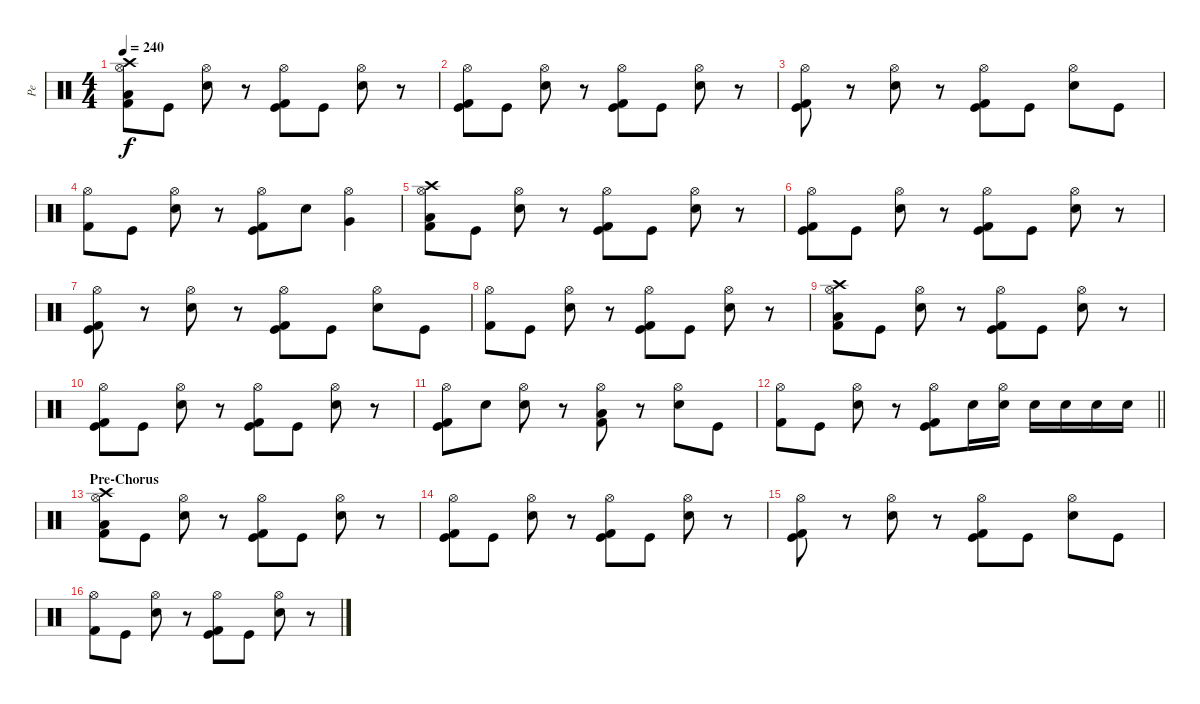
\track ("Pe" "Pe") {instrument percussion}
\staff {score}
\articulation defaults
\ts (4 4)
\tempo 240
\clef neutral
\ks c
("Low Tom (hit)" "Hi-Hat (open)" "Kick (hit) 2" "Crash high (hit)").8{dy f} "Kick (hit)".8 ("Electric Snare (hit)" "Hi-Hat (open)").8 r.8 ("Kick (hit)" "Hi-Hat (open)" "Kick (hit) 2").8 "Kick (hit)".8 ("Electric Snare (hit)" "Hi-Hat (open)").8 r.8 |
("Kick (hit)" "Hi-Hat (open)" "Kick (hit) 2").8 "Kick (hit)".8 ("Electric Snare (hit)" "Hi-Hat (open)").8 r.8 ("Kick (hit)" "Hi-Hat (open)" "Kick (hit) 2").8 "Kick (hit)".8 ("Electric Snare (hit)" "Hi-Hat (open)").8 r.8 |
("Kick (hit)" "Hi-Hat (open)" "Kick (hit) 2").8 r.8 ("Electric Snare (hit)" "Hi-Hat (open)").8 r.8 ("Kick (hit)" "Hi-Hat (open)" "Kick (hit) 2").8 "Kick (hit)".8 ("Electric Snare (hit)" "Hi-Hat (open)").8 "Kick (hit)".8 |
("Hi-Hat (open)" "Kick (hit) 2").8 "Kick (hit)".8 ("Electric Snare (hit)" "Hi-Hat (open)").8 r.8 ("Kick (hit)" "Hi-Hat (open)" "Kick (hit) 2").8 "Electric Snare (hit)".8 ("Very Low Tom (hit)" "Hi-Hat (open)").4 |
("Low Tom (hit)" "Hi-Hat (open)" "Kick (hit) 2" "Crash high (hit)").8 "Kick (hit)".8 ("Electric Snare (hit)" "Hi-Hat (open)").8 r.8 ("Kick (hit)" "Hi-Hat (open)" "Kick (hit) 2").8 "Kick (hit)".8 ("Electric Snare (hit)" "Hi-Hat (open)").8 r.8 |
("Kick (hit)" "Hi-Hat (open)" "Kick (hit) 2").8 "Kick (hit)".8 ("Electric Snare (hit)" "Hi-Hat (open)").8 r.8 ("Kick (hit)" "Hi-Hat (open)" "Kick (hit) 2").8 "Kick (hit)".8 ("Electric Snare (hit)" "Hi-Hat (open)").8 r.8 |
("Kick (hit)" "Hi-Hat (open)" "Kick (hit) 2").8 r.8 ("Electric Snare (hit)" "Hi-Hat (open)").8 r.8 ("Kick (hit)" "Hi-Hat (open)" "Kick (hit) 2").8 "Kick (hit)".8 ("Electric Snare (hit)" "Hi-Hat (open)").8 "Kick (hit)".8 |
("Hi-Hat (open)" "Kick (hit) 2").8 "Kick (hit)".8 ("Electric Snare (hit)" "Hi-Hat (open)").8 r.8 ("Kick (hit)" "Hi-Hat (open)" "Kick (hit) 2").8 "Kick (hit)".8 ("Electric Snare (hit)" "Hi-Hat (open)").8 r.8 |
("Low Tom (hit)" "Hi-Hat (open)" "Kick (hit) 2" "Crash high (hit)").8 "Kick (hit)".8 ("Electric Snare (hit)" "Hi-Hat (open)").8 r.8 ("Kick (hit)" "Hi-Hat (open)" "Kick (hit) 2").8 "Kick (hit)".8 ("Electric Snare (hit)" "Hi-Hat (open)").8 r.8 |
("Kick (hit)" "Hi-Hat (open)" "Kick (hit) 2").8 "Kick (hit)".8 ("Electric Snare (hit)" "Hi-Hat (open)").8 r.8 ("Kick (hit)" "Hi-Hat (open)" "Kick (hit) 2").8 "Kick (hit)".8 ("Electric Snare (hit)" "Hi-Hat (open)").8 r.8 |
("Kick (hit)" "Hi-Hat (open)" "Kick (hit) 2").8 "Electric Snare (hit)".8 ("Electric Snare (hit)" "Hi-Hat (open)").8 r.8 ("Low Floor Tom (hit)" "Hi-Hat (open)" "Kick (hit) 2").8 r.8 ("Electric Snare (hit)" "Hi-Hat (open)").8 "Kick (hit)".8 |
\barLineRight lightlight
("Hi-Hat (open)" "Kick (hit) 2").8 "Kick (hit)".8 ("Electric Snare (hit)" "Hi-Hat (open)").8 r.8 ("Kick (hit)" "Hi-Hat (open)" "Kick (hit) 2").8 "Electric Snare (hit)".16 ("Electric Snare (hit)" "Hi-Hat (open)").16 "Electric Snare (hit)".16 "Electric Snare (hit)".16 "Electric Snare (hit)".16 "Electric Snare (hit)".16 |
\section ("" "Pre-Chorus")
("Low Tom (hit)" "Hi-Hat (open)" "Kick (hit) 2" "Crash high (hit)").8 "Kick (hit)".8 ("Electric Snare (hit)" "Hi-Hat (open)").8 r.8 ("Kick (hit)" "Hi-Hat (open)" "Kick (hit) 2").8 "Kick (hit)".8 ("Electric Snare (hit)" "Hi-Hat (open)").8 r.8 |
("Kick (hit)" "Hi-Hat (open)" "Kick (hit) 2").8 "Kick (hit)".8 ("Electric Snare (hit)" "Hi-Hat (open)").8 r.8 ("Kick (hit)" "Hi-Hat (open)" "Kick (hit) 2").8 "Kick (hit)".8 ("Electric Snare (hit)" "Hi-Hat (open)").8 r.8 |
("Kick (hit)" "Hi-Hat (open)" "Kick (hit) 2").8 r.8 ("Electric Snare (hit)" "Hi-Hat (open)").8 r.8 ("Kick (hit)" "Hi-Hat (open)" "Kick (hit) 2").8 "Kick (hit)".8 ("Electric Snare (hit)" "Hi-Hat (open)").8 "Kick (hit)".8 |
("Hi-Hat (open)" "Kick (hit) 2").8 "Kick (hit)".8 ("Electric Snare (hit)" "Hi-Hat (open)").8 r.8 ("Kick (hit)" "Hi-Hat (open)" "Kick (hit) 2").8 "Kick (hit)".8 ("Electric Snare (hit)" "Hi-Hat (open)").8 r.8
